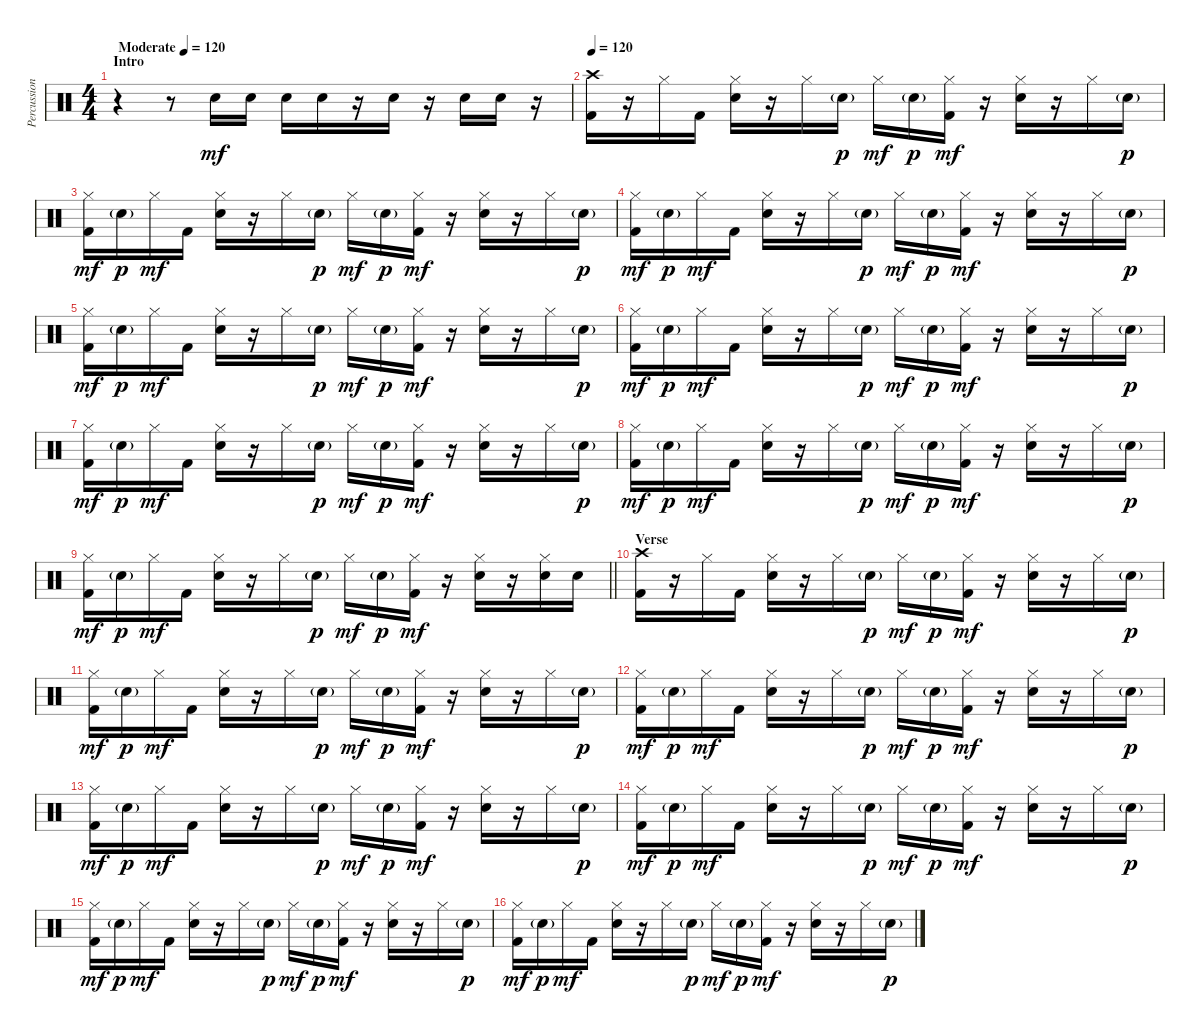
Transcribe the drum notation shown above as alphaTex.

\track ("Percussion" "Percussion") {instrument percussion}
\staff {score}
\articulation defaults
\ts (4 4)
\section ("" "Intro")
\tempo (120 "Moderate")
\clef neutral
\ks c
r.4{dy mf} r.8 "Electric Snare (hit)".16 "Electric Snare (hit)".16 "Electric Snare (hit)".16 "Electric Snare (hit)".16 r.16 "Electric Snare (hit)".16 r.16 "Electric Snare (hit)".16 "Electric Snare (hit)".16 r.16 |
\tempo 120
("Crash high (hit)" "Kick (hit) 2").16 r.16 "Hi-Hat (closed)".16 "Kick (hit) 2".16 ("Hi-Hat (closed)" "Electric Snare (hit)").16 r.16 "Hi-Hat (closed)".16 "Electric Snare (hit)"{g}.16{dy p} "Hi-Hat (closed)".16{dy mf} "Electric Snare (hit)"{g}.16{dy p} ("Hi-Hat (closed)" "Kick (hit) 2").16{dy mf} r.16 ("Hi-Hat (closed)" "Electric Snare (hit)").16 r.16 "Hi-Hat (closed)".16 "Electric Snare (hit)"{g}.16{dy p} |
("Hi-Hat (closed)" "Kick (hit) 2").16{dy mf} "Electric Snare (hit)"{g}.16{dy p} "Hi-Hat (closed)".16{dy mf} "Kick (hit) 2".16 ("Hi-Hat (closed)" "Electric Snare (hit)").16 r.16 "Hi-Hat (closed)".16 "Electric Snare (hit)"{g}.16{dy p} "Hi-Hat (closed)".16{dy mf} "Electric Snare (hit)"{g}.16{dy p} ("Hi-Hat (closed)" "Kick (hit) 2").16{dy mf} r.16 ("Hi-Hat (closed)" "Electric Snare (hit)").16 r.16 "Hi-Hat (closed)".16 "Electric Snare (hit)"{g}.16{dy p} |
("Hi-Hat (closed)" "Kick (hit) 2").16{dy mf} "Electric Snare (hit)"{g}.16{dy p} "Hi-Hat (closed)".16{dy mf} "Kick (hit) 2".16 ("Hi-Hat (closed)" "Electric Snare (hit)").16 r.16 "Hi-Hat (closed)".16 "Electric Snare (hit)"{g}.16{dy p} "Hi-Hat (closed)".16{dy mf} "Electric Snare (hit)"{g}.16{dy p} ("Hi-Hat (closed)" "Kick (hit) 2").16{dy mf} r.16 ("Hi-Hat (closed)" "Electric Snare (hit)").16 r.16 "Hi-Hat (closed)".16 "Electric Snare (hit)"{g}.16{dy p} |
("Hi-Hat (closed)" "Kick (hit) 2").16{dy mf} "Electric Snare (hit)"{g}.16{dy p} "Hi-Hat (closed)".16{dy mf} "Kick (hit) 2".16 ("Hi-Hat (closed)" "Electric Snare (hit)").16 r.16 "Hi-Hat (closed)".16 "Electric Snare (hit)"{g}.16{dy p} "Hi-Hat (closed)".16{dy mf} "Electric Snare (hit)"{g}.16{dy p} ("Hi-Hat (closed)" "Kick (hit) 2").16{dy mf} r.16 ("Hi-Hat (closed)" "Electric Snare (hit)").16 r.16 "Hi-Hat (closed)".16 "Electric Snare (hit)"{g}.16{dy p} |
("Hi-Hat (closed)" "Kick (hit) 2").16{dy mf} "Electric Snare (hit)"{g}.16{dy p} "Hi-Hat (closed)".16{dy mf} "Kick (hit) 2".16 ("Hi-Hat (closed)" "Electric Snare (hit)").16 r.16 "Hi-Hat (closed)".16 "Electric Snare (hit)"{g}.16{dy p} "Hi-Hat (closed)".16{dy mf} "Electric Snare (hit)"{g}.16{dy p} ("Hi-Hat (closed)" "Kick (hit) 2").16{dy mf} r.16 ("Hi-Hat (closed)" "Electric Snare (hit)").16 r.16 "Hi-Hat (closed)".16 "Electric Snare (hit)"{g}.16{dy p} |
("Hi-Hat (closed)" "Kick (hit) 2").16{dy mf} "Electric Snare (hit)"{g}.16{dy p} "Hi-Hat (closed)".16{dy mf} "Kick (hit) 2".16 ("Hi-Hat (closed)" "Electric Snare (hit)").16 r.16 "Hi-Hat (closed)".16 "Electric Snare (hit)"{g}.16{dy p} "Hi-Hat (closed)".16{dy mf} "Electric Snare (hit)"{g}.16{dy p} ("Hi-Hat (closed)" "Kick (hit) 2").16{dy mf} r.16 ("Hi-Hat (closed)" "Electric Snare (hit)").16 r.16 "Hi-Hat (closed)".16 "Electric Snare (hit)"{g}.16{dy p} |
("Hi-Hat (closed)" "Kick (hit) 2").16{dy mf} "Electric Snare (hit)"{g}.16{dy p} "Hi-Hat (closed)".16{dy mf} "Kick (hit) 2".16 ("Hi-Hat (closed)" "Electric Snare (hit)").16 r.16 "Hi-Hat (closed)".16 "Electric Snare (hit)"{g}.16{dy p} "Hi-Hat (closed)".16{dy mf} "Electric Snare (hit)"{g}.16{dy p} ("Hi-Hat (closed)" "Kick (hit) 2").16{dy mf} r.16 ("Hi-Hat (closed)" "Electric Snare (hit)").16 r.16 "Hi-Hat (closed)".16 "Electric Snare (hit)"{g}.16{dy p} |
\barLineRight lightlight
("Hi-Hat (closed)" "Kick (hit) 2").16{dy mf} "Electric Snare (hit)"{g}.16{dy p} "Hi-Hat (closed)".16{dy mf} "Kick (hit) 2".16 ("Hi-Hat (closed)" "Electric Snare (hit)").16 r.16 "Hi-Hat (closed)".16 "Electric Snare (hit)"{g}.16{dy p} "Hi-Hat (closed)".16{dy mf} "Electric Snare (hit)"{g}.16{dy p} ("Hi-Hat (closed)" "Kick (hit) 2").16{dy mf} r.16 ("Hi-Hat (closed)" "Electric Snare (hit)").16 r.16 ("Hi-Hat (closed)" "Electric Snare (hit)").16 "Electric Snare (hit)".16 |
\section ("" "Verse")
("Crash high (hit)" "Kick (hit) 2").16 r.16 "Hi-Hat (closed)".16 "Kick (hit) 2".16 ("Hi-Hat (closed)" "Electric Snare (hit)").16 r.16 "Hi-Hat (closed)".16 "Electric Snare (hit)"{g}.16{dy p} "Hi-Hat (closed)".16{dy mf} "Electric Snare (hit)"{g}.16{dy p} ("Hi-Hat (closed)" "Kick (hit) 2").16{dy mf} r.16 ("Hi-Hat (closed)" "Electric Snare (hit)").16 r.16 "Hi-Hat (closed)".16 "Electric Snare (hit)"{g}.16{dy p} |
("Hi-Hat (closed)" "Kick (hit) 2").16{dy mf} "Electric Snare (hit)"{g}.16{dy p} "Hi-Hat (closed)".16{dy mf} "Kick (hit) 2".16 ("Hi-Hat (closed)" "Electric Snare (hit)").16 r.16 "Hi-Hat (closed)".16 "Electric Snare (hit)"{g}.16{dy p} "Hi-Hat (closed)".16{dy mf} "Electric Snare (hit)"{g}.16{dy p} ("Hi-Hat (closed)" "Kick (hit) 2").16{dy mf} r.16 ("Hi-Hat (closed)" "Electric Snare (hit)").16 r.16 "Hi-Hat (closed)".16 "Electric Snare (hit)"{g}.16{dy p} |
("Hi-Hat (closed)" "Kick (hit) 2").16{dy mf} "Electric Snare (hit)"{g}.16{dy p} "Hi-Hat (closed)".16{dy mf} "Kick (hit) 2".16 ("Hi-Hat (closed)" "Electric Snare (hit)").16 r.16 "Hi-Hat (closed)".16 "Electric Snare (hit)"{g}.16{dy p} "Hi-Hat (closed)".16{dy mf} "Electric Snare (hit)"{g}.16{dy p} ("Hi-Hat (closed)" "Kick (hit) 2").16{dy mf} r.16 ("Hi-Hat (closed)" "Electric Snare (hit)").16 r.16 "Hi-Hat (closed)".16 "Electric Snare (hit)"{g}.16{dy p} |
("Hi-Hat (closed)" "Kick (hit) 2").16{dy mf} "Electric Snare (hit)"{g}.16{dy p} "Hi-Hat (closed)".16{dy mf} "Kick (hit) 2".16 ("Hi-Hat (closed)" "Electric Snare (hit)").16 r.16 "Hi-Hat (closed)".16 "Electric Snare (hit)"{g}.16{dy p} "Hi-Hat (closed)".16{dy mf} "Electric Snare (hit)"{g}.16{dy p} ("Hi-Hat (closed)" "Kick (hit) 2").16{dy mf} r.16 ("Hi-Hat (closed)" "Electric Snare (hit)").16 r.16 "Hi-Hat (closed)".16 "Electric Snare (hit)"{g}.16{dy p} |
("Hi-Hat (closed)" "Kick (hit) 2").16{dy mf} "Electric Snare (hit)"{g}.16{dy p} "Hi-Hat (closed)".16{dy mf} "Kick (hit) 2".16 ("Hi-Hat (closed)" "Electric Snare (hit)").16 r.16 "Hi-Hat (closed)".16 "Electric Snare (hit)"{g}.16{dy p} "Hi-Hat (closed)".16{dy mf} "Electric Snare (hit)"{g}.16{dy p} ("Hi-Hat (closed)" "Kick (hit) 2").16{dy mf} r.16 ("Hi-Hat (closed)" "Electric Snare (hit)").16 r.16 "Hi-Hat (closed)".16 "Electric Snare (hit)"{g}.16{dy p} |
("Hi-Hat (closed)" "Kick (hit) 2").16{dy mf} "Electric Snare (hit)"{g}.16{dy p} "Hi-Hat (closed)".16{dy mf} "Kick (hit) 2".16 ("Hi-Hat (closed)" "Electric Snare (hit)").16 r.16 "Hi-Hat (closed)".16 "Electric Snare (hit)"{g}.16{dy p} "Hi-Hat (closed)".16{dy mf} "Electric Snare (hit)"{g}.16{dy p} ("Hi-Hat (closed)" "Kick (hit) 2").16{dy mf} r.16 ("Hi-Hat (closed)" "Electric Snare (hit)").16 r.16 "Hi-Hat (closed)".16 "Electric Snare (hit)"{g}.16{dy p} |
("Hi-Hat (closed)" "Kick (hit) 2").16{dy mf} "Electric Snare (hit)"{g}.16{dy p} "Hi-Hat (closed)".16{dy mf} "Kick (hit) 2".16 ("Hi-Hat (closed)" "Electric Snare (hit)").16 r.16 "Hi-Hat (closed)".16 "Electric Snare (hit)"{g}.16{dy p} "Hi-Hat (closed)".16{dy mf} "Electric Snare (hit)"{g}.16{dy p} ("Hi-Hat (closed)" "Kick (hit) 2").16{dy mf} r.16 ("Hi-Hat (closed)" "Electric Snare (hit)").16 r.16 "Hi-Hat (closed)".16 "Electric Snare (hit)"{g}.16{dy p}
